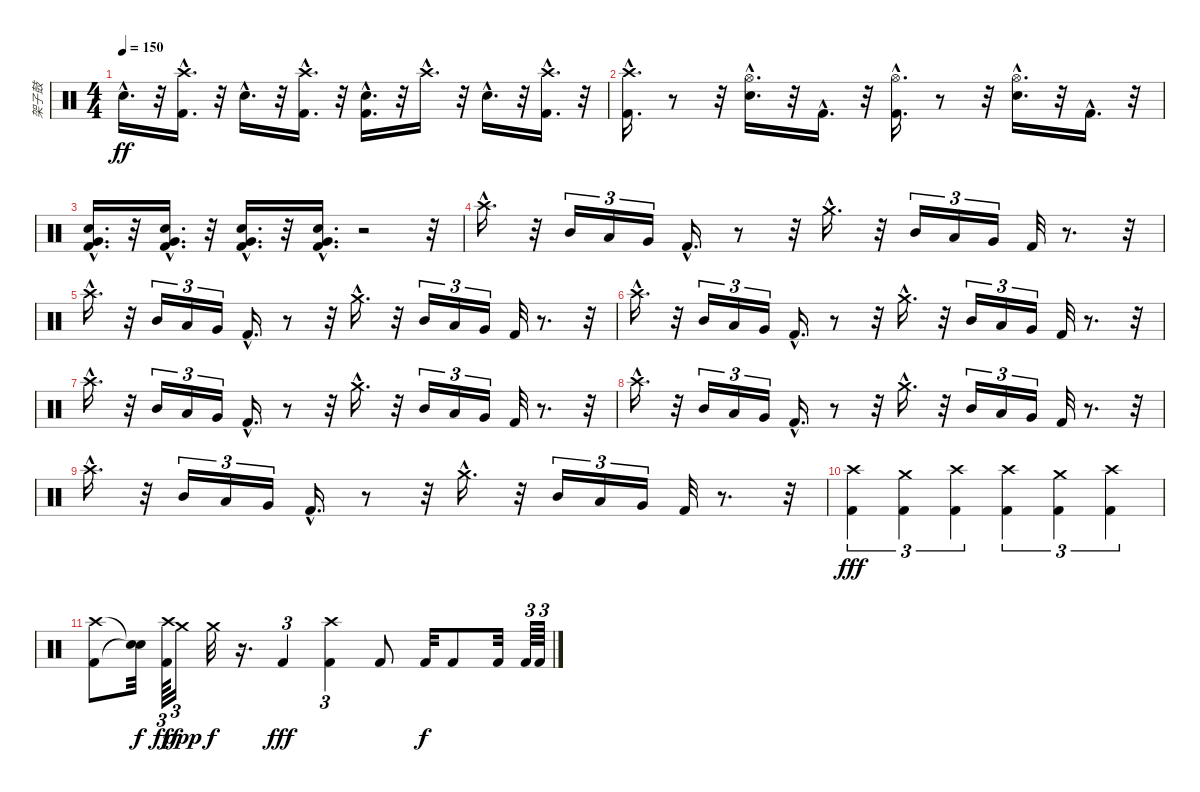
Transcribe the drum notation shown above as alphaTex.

\track ("架子鼓" "架子鼓") {instrument percussion}
\staff {score}
\articulation defaults
\ts (4 4)
\tempo 150
\clef neutral
\ks c "Snare (hit) 2"{hac}.16{d dy ff}
r.32 ("Kick (hit) 2"{hac} "Crash high (hit)"{hac}).16{d} r.32 "Snare (hit) 2"{hac}.16{d} r.32 ("Crash high (hit)"{hac} "Kick (hit) 2"{hac}).16{d} r.32 ("Kick (hit) 2"{hac} "Snare (hit) 2"{hac}).16{d} r.32 "Crash high (hit)"{hac}.16{d} r.32 "Snare (hit) 2"{hac}.16{d} r.32 ("Kick (hit) 2"{hac} "Crash high (hit)"{hac}).16{d} r.32 |
("Crash high (hit)"{hac} "Kick (hit) 2"{hac}).16{d} r.8 r.32 ("Hi-Hat (open)"{hac} "Snare (hit) 2"{hac}).16{d} r.32 "Kick (hit) 2"{hac}.16{d} r.32 ("Kick (hit) 2"{hac} "Hi-Hat (open)"{hac}).16{d} r.8 r.32 ("Hi-Hat (open)"{hac} "Snare (hit) 2"{hac}).16{d} r.32 "Kick (hit) 2"{hac}.16{d} r.32 |
("Very Low Tom (hit)"{hac} "Snare (hit) 2"{hac} "Kick (hit) 2"{hac}).16{d} r.32 ("Very Low Tom (hit)"{hac} "Snare (hit) 2"{hac} "Kick (hit) 2"{hac}).16{d} r.32 ("Kick (hit) 2"{hac} "Snare (hit) 2"{hac} "Very Low Tom (hit)"{hac}).16{d} r.32 ("Kick (hit) 2"{hac} "Snare (hit) 2"{hac} "Very Low Tom (hit)"{hac}).16{d} r.2 r.32 |
"Crash high (hit)"{hac}.16{d} r.32 "Mid Tom (hit)".16{tu (3 2)} "Low Tom (hit)".16{tu (3 2)} "Very Low Tom (hit)".16{tu (3 2)} "Kick (hit) 2"{hac}.16{d} r.8 r.32 "Crash medium (hit)"{hac}.16{d} r.32 "Mid Tom (hit)".16{tu (3 2)} "Low Tom (hit)".16{tu (3 2)} "Very Low Tom (hit)".16{tu (3 2)} "Kick (hit) 2".32 r.8{d} r.32 |
"Crash high (hit)"{hac}.16{d} r.32 "Mid Tom (hit)".16{tu (3 2)} "Low Tom (hit)".16{tu (3 2)} "Very Low Tom (hit)".16{tu (3 2)} "Kick (hit) 2"{hac}.16{d} r.8 r.32 "Crash medium (hit)"{hac}.16{d} r.32 "Mid Tom (hit)".16{tu (3 2)} "Low Tom (hit)".16{tu (3 2)} "Very Low Tom (hit)".16{tu (3 2)} "Kick (hit) 2".32 r.8{d} r.32 |
"Crash high (hit)"{hac}.16{d} r.32 "Mid Tom (hit)".16{tu (3 2)} "Low Tom (hit)".16{tu (3 2)} "Very Low Tom (hit)".16{tu (3 2)} "Kick (hit) 2"{hac}.16{d} r.8 r.32 "Crash medium (hit)"{hac}.16{d} r.32 "Mid Tom (hit)".16{tu (3 2)} "Low Tom (hit)".16{tu (3 2)} "Very Low Tom (hit)".16{tu (3 2)} "Kick (hit) 2".32 r.8{d} r.32 |
"Crash high (hit)"{hac}.16{d} r.32 "Mid Tom (hit)".16{tu (3 2)} "Low Tom (hit)".16{tu (3 2)} "Very Low Tom (hit)".16{tu (3 2)} "Kick (hit) 2"{hac}.16{d} r.8 r.32 "Crash medium (hit)"{hac}.16{d} r.32 "Mid Tom (hit)".16{tu (3 2)} "Low Tom (hit)".16{tu (3 2)} "Very Low Tom (hit)".16{tu (3 2)} "Kick (hit) 2".32 r.8{d} r.32 |
"Crash high (hit)"{hac}.16{d} r.32 "Mid Tom (hit)".16{tu (3 2)} "Low Tom (hit)".16{tu (3 2)} "Very Low Tom (hit)".16{tu (3 2)} "Kick (hit) 2"{hac}.16{d} r.8 r.32 "Crash medium (hit)"{hac}.16{d} r.32 "Mid Tom (hit)".16{tu (3 2)} "Low Tom (hit)".16{tu (3 2)} "Very Low Tom (hit)".16{tu (3 2)} "Kick (hit) 2".32 r.8{d} r.32 |
"Crash high (hit)"{hac}.16{d} r.32 "Mid Tom (hit)".16{tu (3 2)} "Low Tom (hit)".16{tu (3 2)} "Very Low Tom (hit)".16{tu (3 2)} "Kick (hit) 2"{hac}.16{d} r.8 r.32 "Crash medium (hit)"{hac}.16{d} r.32 "Mid Tom (hit)".16{tu (3 2)} "Low Tom (hit)".16{tu (3 2)} "Very Low Tom (hit)".16{tu (3 2)} "Kick (hit) 2".32 r.8{d} r.32 |
("Kick (hit) 2" "Crash high (hit)").4{tu (3 2) dy fff} ("Crash medium (hit)" "Kick (hit) 2").4{tu (3 2)} ("Crash high (hit)" "Kick (hit) 2").4{tu (3 2)} ("Crash high (hit)" "Kick (hit) 2").4{tu (3 2)} ("Crash medium (hit)" "Kick (hit) 2").4{tu (3 2)} ("Crash high (hit)" "Kick (hit) 2").4{tu (3 2)} |
("Crash high (hit)" "Kick (hit) 2").8 ("Snare (hit)"{t} "Snare (hit)"{t}).32{dy f} ("Crash high (hit)" "Kick (hit) 2").64{tu (3 2) dy fff} "Crash medium (hit)".16{tu (3 2) dy ppp} "Crash medium (hit)".32{dy f} r.16{d} "Kick (hit) 2".4{tu (3 2) dy fff} ("Kick (hit) 2" "Crash high (hit)").4{tu (3 2)} "Kick (hit) 2".8 "Kick (hit) 2".32{dy f} "Kick (hit) 2".8 "Kick (hit) 2".32 "Kick (hit) 2".64{tu (3 2)} "Kick (hit) 2".64{tu (3 2)}
